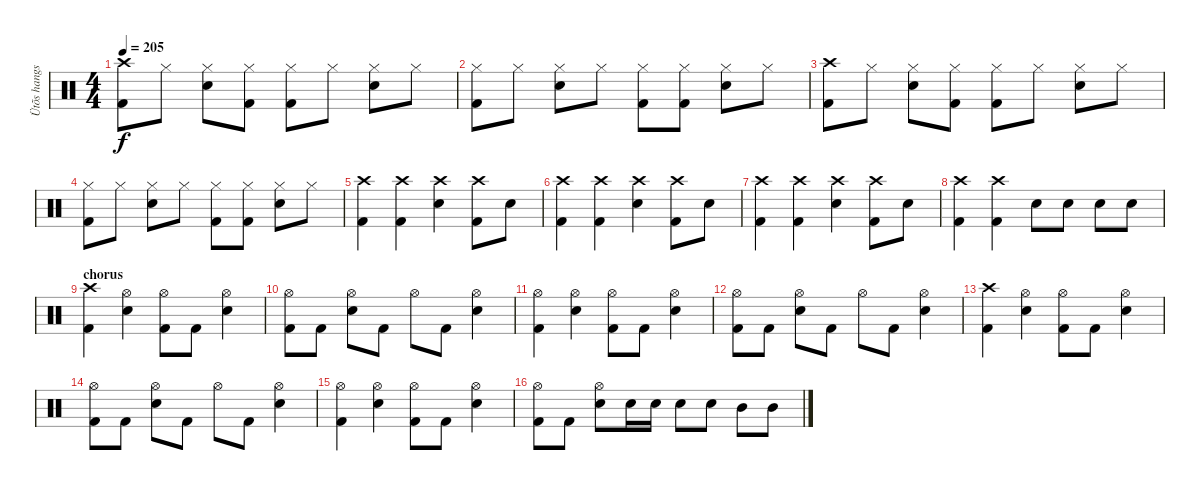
\track ("Ütõs hangszer" "Ütõs hangs") {instrument percussion}
\staff {score}
\articulation defaults
\ts (4 4)
\tempo 205
\clef neutral
\ks c
("Crash high (hit)" "Kick (hit) 2").8{dy f} "Hi-Hat (closed)".8 ("Hi-Hat (closed)" "Snare (hit) 2").8 ("Hi-Hat (closed)" "Kick (hit) 2").8 ("Hi-Hat (closed)" "Kick (hit) 2").8 "Hi-Hat (closed)".8 ("Hi-Hat (closed)" "Snare (hit) 2").8 "Hi-Hat (closed)".8 |
("Hi-Hat (closed)" "Kick (hit) 2").8 "Hi-Hat (closed)".8 ("Hi-Hat (closed)" "Snare (hit) 2").8 "Hi-Hat (closed)".8 ("Hi-Hat (closed)" "Kick (hit) 2").8 ("Hi-Hat (closed)" "Kick (hit) 2").8 ("Hi-Hat (closed)" "Snare (hit) 2").8 "Hi-Hat (closed)".8 |
("Crash high (hit)" "Kick (hit) 2").8 "Hi-Hat (closed)".8 ("Hi-Hat (closed)" "Snare (hit) 2").8 ("Hi-Hat (closed)" "Kick (hit) 2").8 ("Hi-Hat (closed)" "Kick (hit) 2").8 "Hi-Hat (closed)".8 ("Hi-Hat (closed)" "Snare (hit) 2").8 "Hi-Hat (closed)".8 |
("Hi-Hat (closed)" "Kick (hit) 2").8 "Hi-Hat (closed)".8 ("Hi-Hat (closed)" "Snare (hit) 2").8 "Hi-Hat (closed)".8 ("Hi-Hat (closed)" "Kick (hit) 2").8 ("Hi-Hat (closed)" "Kick (hit) 2").8 ("Hi-Hat (closed)" "Snare (hit) 2").8 "Hi-Hat (closed)".8 |
("Crash high (hit)" "Kick (hit) 2").4 ("Crash high (hit)" "Kick (hit) 2").4 ("Crash high (hit)" "Snare (hit) 2").4 ("Crash high (hit)" "Kick (hit) 2").8 "Snare (hit) 2".8 |
("Crash high (hit)" "Kick (hit) 2").4 ("Crash high (hit)" "Kick (hit) 2").4 ("Crash high (hit)" "Snare (hit) 2").4 ("Crash high (hit)" "Kick (hit) 2").8 "Snare (hit) 2".8 |
("Crash high (hit)" "Kick (hit) 2").4 ("Crash high (hit)" "Kick (hit) 2").4 ("Crash high (hit)" "Snare (hit) 2").4 ("Crash high (hit)" "Kick (hit) 2").8 "Snare (hit) 2".8 |
("Crash high (hit)" "Kick (hit) 2").4 ("Crash high (hit)" "Kick (hit) 2").4 "Snare (hit) 2".8 "Snare (hit) 2".8 "Snare (hit) 2".8 "Snare (hit) 2".8 |
\section ("" "chorus")
("Crash high (hit)" "Kick (hit) 2").4 ("Hi-Hat (open)" "Snare (hit) 2").4 ("Hi-Hat (open)" "Kick (hit) 2").8 "Kick (hit) 2".8 ("Hi-Hat (open)" "Snare (hit) 2").4 |
("Hi-Hat (open)" "Kick (hit) 2").8 "Kick (hit) 2".8 ("Hi-Hat (open)" "Snare (hit) 2").8 "Kick (hit) 2".8 "Hi-Hat (open)".8 "Kick (hit) 2".8 ("Hi-Hat (open)" "Snare (hit) 2").4 |
("Hi-Hat (open)" "Kick (hit) 2").4 ("Hi-Hat (open)" "Snare (hit) 2").4 ("Hi-Hat (open)" "Kick (hit) 2").8 "Kick (hit) 2".8 ("Hi-Hat (open)" "Snare (hit) 2").4 |
("Hi-Hat (open)" "Kick (hit) 2").8 "Kick (hit) 2".8 ("Hi-Hat (open)" "Snare (hit) 2").8 "Kick (hit) 2".8 "Hi-Hat (open)".8 "Kick (hit) 2".8 ("Hi-Hat (open)" "Snare (hit) 2").4 |
("Crash high (hit)" "Kick (hit) 2").4 ("Hi-Hat (open)" "Snare (hit) 2").4 ("Hi-Hat (open)" "Kick (hit) 2").8 "Kick (hit) 2".8 ("Hi-Hat (open)" "Snare (hit) 2").4 |
("Hi-Hat (open)" "Kick (hit) 2").8 "Kick (hit) 2".8 ("Hi-Hat (open)" "Snare (hit) 2").8 "Kick (hit) 2".8 "Hi-Hat (open)".8 "Kick (hit) 2".8 ("Hi-Hat (open)" "Snare (hit) 2").4 |
("Hi-Hat (open)" "Kick (hit) 2").4 ("Hi-Hat (open)" "Snare (hit) 2").4 ("Hi-Hat (open)" "Kick (hit) 2").8 "Kick (hit) 2".8 ("Hi-Hat (open)" "Snare (hit) 2").4 |
("Hi-Hat (open)" "Kick (hit) 2").8 "Kick (hit) 2".8 ("Hi-Hat (open)" "Snare (hit) 2").8 "Snare (hit) 2".16 "Snare (hit) 2".16 "Snare (hit) 2".8 "Snare (hit) 2".8 "Mid Tom (hit)".8 "Mid Tom (hit)".8
